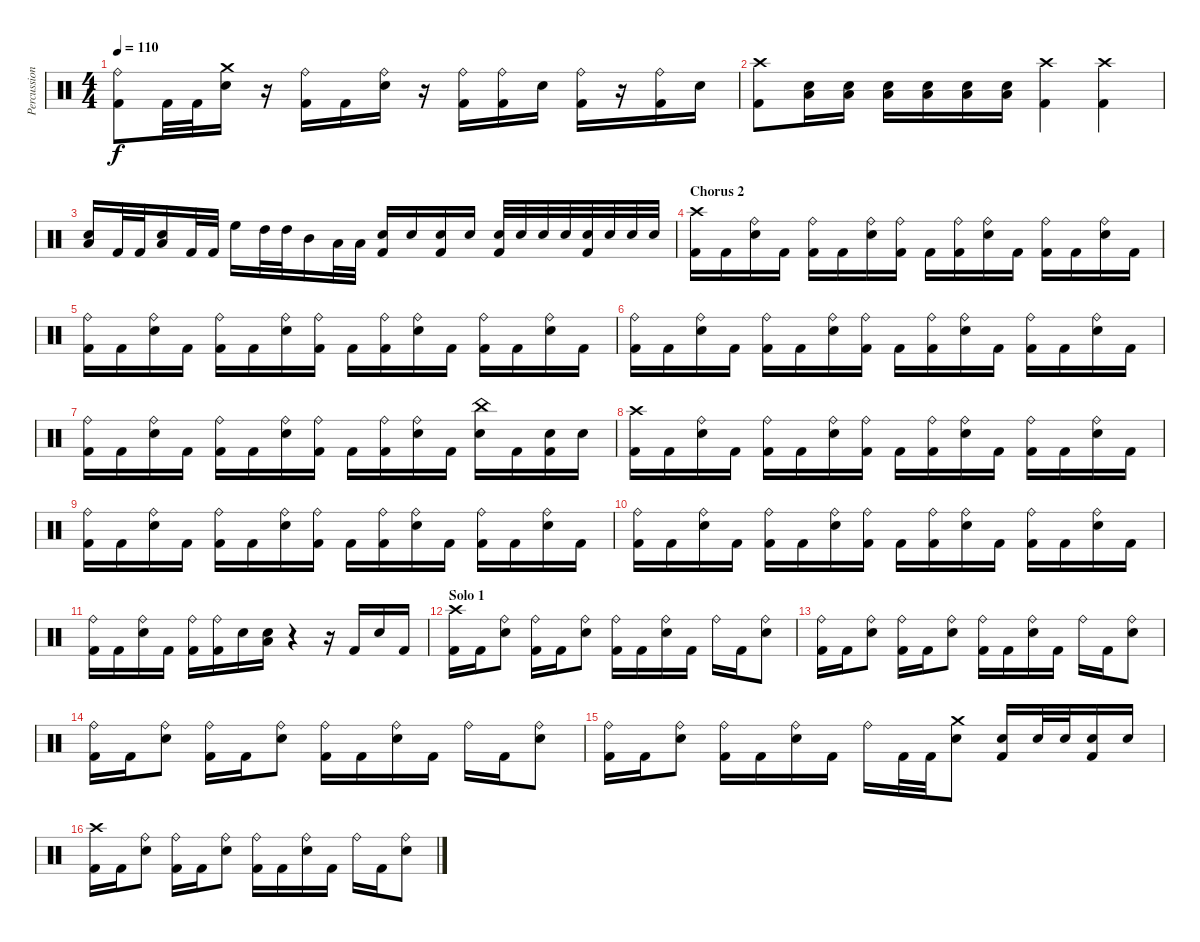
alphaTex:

\track ("Percussion" "Percussion") {instrument percussion}
\staff {score}
\articulation defaults
\ts (4 4)
\tempo 110
\clef neutral
\ks c
("Kick (hit) 2" "Ride (bell)").8{dy f} "Kick (hit) 2".32 "Kick (hit) 2".32 ("Electric Snare (hit)" "Crash medium (hit)").16 r.16 ("Kick (hit) 2" "Ride (bell)").16 "Kick (hit) 2".16 ("Electric Snare (hit)" "Ride (bell)").16 r.16 ("Kick (hit) 2" "Ride (bell)").16 ("Kick (hit) 2" "Ride (bell)").16 "Electric Snare (hit)".16 ("Kick (hit) 2" "Ride (bell)").16 r.16 ("Kick (hit) 2" "Ride (bell)").16 "Electric Snare (hit)".16 |
("Kick (hit) 2" "Crash high (hit)").8 ("Electric Snare (hit)" "Low Tom (hit)").16 ("Electric Snare (hit)" "Low Tom (hit)").16 ("Electric Snare (hit)" "Low Tom (hit)").16 ("Electric Snare (hit)" "Low Tom (hit)").16 ("Electric Snare (hit)" "Low Tom (hit)").16 ("Electric Snare (hit)" "Low Tom (hit)").16 ("Kick (hit) 2" "Crash high (hit)").4 ("Kick (hit) 2" "Crash high (hit)").4 |
("Electric Snare (hit)" "Low Tom (hit)").16 "Kick (hit) 2".32 "Kick (hit) 2".32 ("Electric Snare (hit)" "Low Tom (hit)").16 "Kick (hit) 2".32 "Kick (hit) 2".32 "High Floor Tom (hit)".16 "High Tom (hit)".32 "High Tom (hit)".32 "Mid Tom (hit)".16 "Low Tom (hit)".32 "Low Tom (hit)".32 ("Electric Snare (hit)" "Kick (hit) 2").16 "Electric Snare (hit)".16 ("Electric Snare (hit)" "Kick (hit) 2").16 "Electric Snare (hit)".16 ("Electric Snare (hit)" "Kick (hit) 2").32 "Electric Snare (hit)".32 "Electric Snare (hit)".32 "Electric Snare (hit)".32 ("Electric Snare (hit)" "Kick (hit) 2").32 "Electric Snare (hit)".32 "Electric Snare (hit)".32 "Electric Snare (hit)".32 |
\section ("" "Chorus 2")
("Kick (hit) 2" "Crash high (hit)").16 "Kick (hit) 2".16 ("Electric Snare (hit)" "Ride (bell)").16 "Kick (hit) 2".16 ("Kick (hit) 2" "Ride (bell)").16 "Kick (hit) 2".16 ("Electric Snare (hit)" "Ride (bell)").16 ("Kick (hit) 2" "Ride (bell)").16 "Kick (hit) 2".16 ("Kick (hit) 2" "Ride (bell)").16 ("Electric Snare (hit)" "Ride (bell)").16 "Kick (hit) 2".16 ("Kick (hit) 2" "Ride (bell)").16 "Kick (hit) 2".16 ("Electric Snare (hit)" "Ride (bell)").16 "Kick (hit) 2".16 |
("Kick (hit) 2" "Ride (bell)").16 "Kick (hit) 2".16 ("Electric Snare (hit)" "Ride (bell)").16 "Kick (hit) 2".16 ("Kick (hit) 2" "Ride (bell)").16 "Kick (hit) 2".16 ("Electric Snare (hit)" "Ride (bell)").16 ("Kick (hit) 2" "Ride (bell)").16 "Kick (hit) 2".16 ("Kick (hit) 2" "Ride (bell)").16 ("Electric Snare (hit)" "Ride (bell)").16 "Kick (hit) 2".16 ("Kick (hit) 2" "Ride (bell)").16 "Kick (hit) 2".16 ("Electric Snare (hit)" "Ride (bell)").16 "Kick (hit) 2".16 |
("Kick (hit) 2" "Ride (bell)").16 "Kick (hit) 2".16 ("Electric Snare (hit)" "Ride (bell)").16 "Kick (hit) 2".16 ("Kick (hit) 2" "Ride (bell)").16 "Kick (hit) 2".16 ("Electric Snare (hit)" "Ride (bell)").16 ("Kick (hit) 2" "Ride (bell)").16 "Kick (hit) 2".16 ("Kick (hit) 2" "Ride (bell)").16 ("Electric Snare (hit)" "Ride (bell)").16 "Kick (hit) 2".16 ("Kick (hit) 2" "Ride (bell)").16 "Kick (hit) 2".16 ("Electric Snare (hit)" "Ride (bell)").16 "Kick (hit) 2".16 |
("Kick (hit) 2" "Ride (bell)").16 "Kick (hit) 2".16 ("Electric Snare (hit)" "Ride (bell)").16 "Kick (hit) 2".16 ("Kick (hit) 2" "Ride (bell)").16 "Kick (hit) 2".16 ("Electric Snare (hit)" "Ride (bell)").16 ("Kick (hit) 2" "Ride (bell)").16 "Kick (hit) 2".16 ("Kick (hit) 2" "Ride (bell)").16 ("Electric Snare (hit)" "Ride (bell)").16 "Kick (hit) 2".16 ("Electric Snare (hit)" "China (hit)").16 "Kick (hit) 2".16 ("Electric Snare (hit)" "Kick (hit) 2").16 "Electric Snare (hit)".16 |
("Kick (hit) 2" "Crash high (hit)").16 "Kick (hit) 2".16 ("Electric Snare (hit)" "Ride (bell)").16 "Kick (hit) 2".16 ("Kick (hit) 2" "Ride (bell)").16 "Kick (hit) 2".16 ("Electric Snare (hit)" "Ride (bell)").16 ("Kick (hit) 2" "Ride (bell)").16 "Kick (hit) 2".16 ("Kick (hit) 2" "Ride (bell)").16 ("Electric Snare (hit)" "Ride (bell)").16 "Kick (hit) 2".16 ("Kick (hit) 2" "Ride (bell)").16 "Kick (hit) 2".16 ("Electric Snare (hit)" "Ride (bell)").16 "Kick (hit) 2".16 |
("Kick (hit) 2" "Ride (bell)").16 "Kick (hit) 2".16 ("Electric Snare (hit)" "Ride (bell)").16 "Kick (hit) 2".16 ("Kick (hit) 2" "Ride (bell)").16 "Kick (hit) 2".16 ("Electric Snare (hit)" "Ride (bell)").16 ("Kick (hit) 2" "Ride (bell)").16 "Kick (hit) 2".16 ("Kick (hit) 2" "Ride (bell)").16 ("Electric Snare (hit)" "Ride (bell)").16 "Kick (hit) 2".16 ("Kick (hit) 2" "Ride (bell)").16 "Kick (hit) 2".16 ("Electric Snare (hit)" "Ride (bell)").16 "Kick (hit) 2".16 |
("Kick (hit) 2" "Ride (bell)").16 "Kick (hit) 2".16 ("Electric Snare (hit)" "Ride (bell)").16 "Kick (hit) 2".16 ("Kick (hit) 2" "Ride (bell)").16 "Kick (hit) 2".16 ("Electric Snare (hit)" "Ride (bell)").16 ("Kick (hit) 2" "Ride (bell)").16 "Kick (hit) 2".16 ("Kick (hit) 2" "Ride (bell)").16 ("Electric Snare (hit)" "Ride (bell)").16 "Kick (hit) 2".16 ("Kick (hit) 2" "Ride (bell)").16 "Kick (hit) 2".16 ("Electric Snare (hit)" "Ride (bell)").16 "Kick (hit) 2".16 |
("Kick (hit) 2" "Ride (bell)").16 "Kick (hit) 2".16 ("Electric Snare (hit)" "Ride (bell)").16 "Kick (hit) 2".16 ("Kick (hit) 2" "Ride (bell)").16 ("Kick (hit) 2" "Ride (bell)").16 "Electric Snare (hit)".16 ("Electric Snare (hit)" "Low Tom (hit)").16 r.4 r.16 "Kick (hit) 2".16 "Electric Snare (hit)".16 "Kick (hit) 2".16 |
\section ("" "Solo 1")
("Kick (hit) 2" "Crash high (hit)").16 "Kick (hit) 2".16 ("Electric Snare (hit)" "Ride (bell)").8 ("Kick (hit) 2" "Ride (bell)").16 "Kick (hit) 2".16 ("Electric Snare (hit)" "Ride (bell)").8 ("Kick (hit) 2" "Ride (bell)").16 "Kick (hit) 2".16 ("Electric Snare (hit)" "Ride (bell)").16 "Kick (hit) 2".16 "Ride (bell)".16 "Kick (hit) 2".16 ("Electric Snare (hit)" "Ride (bell)").8 |
("Kick (hit) 2" "Ride (bell)").16 "Kick (hit) 2".16 ("Electric Snare (hit)" "Ride (bell)").8 ("Kick (hit) 2" "Ride (bell)").16 "Kick (hit) 2".16 ("Electric Snare (hit)" "Ride (bell)").8 ("Kick (hit) 2" "Ride (bell)").16 "Kick (hit) 2".16 ("Electric Snare (hit)" "Ride (bell)").16 "Kick (hit) 2".16 "Ride (bell)".16 "Kick (hit) 2".16 ("Electric Snare (hit)" "Ride (bell)").8 |
("Kick (hit) 2" "Ride (bell)").16 "Kick (hit) 2".16 ("Electric Snare (hit)" "Ride (bell)").8 ("Kick (hit) 2" "Ride (bell)").16 "Kick (hit) 2".16 ("Electric Snare (hit)" "Ride (bell)").8 ("Kick (hit) 2" "Ride (bell)").16 "Kick (hit) 2".16 ("Electric Snare (hit)" "Ride (bell)").16 "Kick (hit) 2".16 "Ride (bell)".16 "Kick (hit) 2".16 ("Electric Snare (hit)" "Ride (bell)").8 |
("Kick (hit) 2" "Ride (bell)").16 "Kick (hit) 2".16 ("Electric Snare (hit)" "Ride (bell)").8 ("Kick (hit) 2" "Ride (bell)").16 "Kick (hit) 2".16 ("Electric Snare (hit)" "Ride (bell)").16 "Kick (hit) 2".16 "Ride (bell)".16 "Kick (hit) 2".32 "Kick (hit) 2".32 ("Electric Snare (hit)" "Crash medium (hit)").8 ("Electric Snare (hit)" "Kick (hit) 2").16 "Electric Snare (hit)".32 "Electric Snare (hit)".32 ("Electric Snare (hit)" "Kick (hit) 2").16 "Electric Snare (hit)".16 |
("Kick (hit) 2" "Crash high (hit)").16 "Kick (hit) 2".16 ("Electric Snare (hit)" "Ride (bell)").8 ("Kick (hit) 2" "Ride (bell)").16 "Kick (hit) 2".16 ("Electric Snare (hit)" "Ride (bell)").8 ("Kick (hit) 2" "Ride (bell)").16 "Kick (hit) 2".16 ("Electric Snare (hit)" "Ride (bell)").16 "Kick (hit) 2".16 "Ride (bell)".16 "Kick (hit) 2".16 ("Electric Snare (hit)" "Ride (bell)").8
